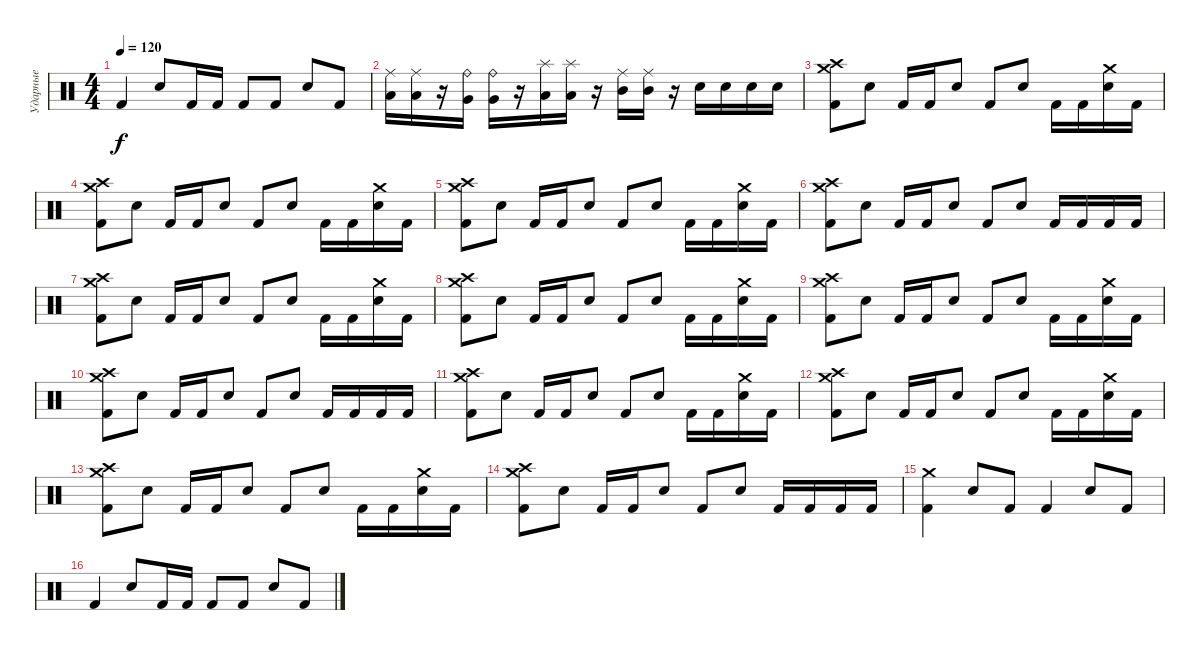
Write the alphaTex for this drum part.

\track ("Ударные" "Ударные") {instrument percussion}
\staff {score}
\articulation defaults
\ts (4 4)
\tempo 120
\clef neutral
\ks c "Kick (hit) 2".4{dy f} "Snare (hit) 2".8 "Kick (hit) 2".16 "Kick (hit) 2".16 "Kick (hit) 2".8 "Kick (hit) 2".8 "Snare (hit) 2".8 "Kick (hit) 2".8
|
("Low Floor Tom (hit)" "Ride (middle)").16 ("Low Floor Tom (hit)" "Ride (middle)").16 r.16 ("Very Low Tom (hit)" "Ride (bell)").16 ("Very Low Tom (hit)" "Ride (bell)").16 r.16 ("Low Tom (hit)" "Splash (hit)").16 ("Low Tom (hit)" "Splash (hit)").16 r.16 ("Mid Tom (hit)" "Ride (middle)").16 ("Mid Tom (hit)" "Ride (middle)").16 r.16 "Snare (hit) 2".16 "Snare (hit) 2".16 "Snare (hit) 2".16 "Snare (hit) 2".16 |
("Kick (hit) 2" "Crash medium (hit)" "Crash high (hit)").8 "Snare (hit) 2".8 "Kick (hit) 2".16 "Kick (hit) 2".16 "Snare (hit) 2".8 "Kick (hit) 2".8 "Snare (hit) 2".8 "Kick (hit) 2".16 "Kick (hit) 2".16 ("Snare (hit) 2" "Crash medium (hit)").16 "Kick (hit) 2".16 |
("Kick (hit) 2" "Crash medium (hit)" "Crash high (hit)").8 "Snare (hit) 2".8 "Kick (hit) 2".16 "Kick (hit) 2".16 "Snare (hit) 2".8 "Kick (hit) 2".8 "Snare (hit) 2".8 "Kick (hit) 2".16 "Kick (hit) 2".16 ("Snare (hit) 2" "Crash medium (hit)").16 "Kick (hit) 2".16 |
("Kick (hit) 2" "Crash medium (hit)" "Crash high (hit)").8 "Snare (hit) 2".8 "Kick (hit) 2".16 "Kick (hit) 2".16 "Snare (hit) 2".8 "Kick (hit) 2".8 "Snare (hit) 2".8 "Kick (hit) 2".16 "Kick (hit) 2".16 ("Snare (hit) 2" "Crash medium (hit)").16 "Kick (hit) 2".16 |
("Kick (hit) 2" "Crash medium (hit)" "Crash high (hit)").8 "Snare (hit) 2".8 "Kick (hit) 2".16 "Kick (hit) 2".16 "Snare (hit) 2".8 "Kick (hit) 2".8 "Snare (hit) 2".8 "Kick (hit) 2".16 "Kick (hit) 2".16 "Kick (hit) 2".16 "Kick (hit) 2".16 |
("Kick (hit) 2" "Crash medium (hit)" "Crash high (hit)").8 "Snare (hit) 2".8 "Kick (hit) 2".16 "Kick (hit) 2".16 "Snare (hit) 2".8 "Kick (hit) 2".8 "Snare (hit) 2".8 "Kick (hit) 2".16 "Kick (hit) 2".16 ("Snare (hit) 2" "Crash medium (hit)").16 "Kick (hit) 2".16 |
("Kick (hit) 2" "Crash medium (hit)" "Crash high (hit)").8 "Snare (hit) 2".8 "Kick (hit) 2".16 "Kick (hit) 2".16 "Snare (hit) 2".8 "Kick (hit) 2".8 "Snare (hit) 2".8 "Kick (hit) 2".16 "Kick (hit) 2".16 ("Snare (hit) 2" "Crash medium (hit)").16 "Kick (hit) 2".16 |
("Kick (hit) 2" "Crash medium (hit)" "Crash high (hit)").8 "Snare (hit) 2".8 "Kick (hit) 2".16 "Kick (hit) 2".16 "Snare (hit) 2".8 "Kick (hit) 2".8 "Snare (hit) 2".8 "Kick (hit) 2".16 "Kick (hit) 2".16 ("Snare (hit) 2" "Crash medium (hit)").16 "Kick (hit) 2".16 |
("Kick (hit) 2" "Crash medium (hit)" "Crash high (hit)").8 "Snare (hit) 2".8 "Kick (hit) 2".16 "Kick (hit) 2".16 "Snare (hit) 2".8 "Kick (hit) 2".8 "Snare (hit) 2".8 "Kick (hit) 2".16 "Kick (hit) 2".16 "Kick (hit) 2".16 "Kick (hit) 2".16 |
("Kick (hit) 2" "Crash medium (hit)" "Crash high (hit)").8 "Snare (hit) 2".8 "Kick (hit) 2".16 "Kick (hit) 2".16 "Snare (hit) 2".8 "Kick (hit) 2".8 "Snare (hit) 2".8 "Kick (hit) 2".16 "Kick (hit) 2".16 ("Snare (hit) 2" "Crash medium (hit)").16 "Kick (hit) 2".16 |
("Kick (hit) 2" "Crash medium (hit)" "Crash high (hit)").8 "Snare (hit) 2".8 "Kick (hit) 2".16 "Kick (hit) 2".16 "Snare (hit) 2".8 "Kick (hit) 2".8 "Snare (hit) 2".8 "Kick (hit) 2".16 "Kick (hit) 2".16 ("Snare (hit) 2" "Crash medium (hit)").16 "Kick (hit) 2".16 |
("Kick (hit) 2" "Crash medium (hit)" "Crash high (hit)").8 "Snare (hit) 2".8 "Kick (hit) 2".16 "Kick (hit) 2".16 "Snare (hit) 2".8 "Kick (hit) 2".8 "Snare (hit) 2".8 "Kick (hit) 2".16 "Kick (hit) 2".16 ("Snare (hit) 2" "Crash medium (hit)").16 "Kick (hit) 2".16 |
("Kick (hit) 2" "Crash medium (hit)" "Crash high (hit)").8 "Snare (hit) 2".8 "Kick (hit) 2".16 "Kick (hit) 2".16 "Snare (hit) 2".8 "Kick (hit) 2".8 "Snare (hit) 2".8 "Kick (hit) 2".16 "Kick (hit) 2".16 "Kick (hit) 2".16 "Kick (hit) 2".16 |
("Kick (hit) 2" "Crash medium (hit)").4 "Snare (hit) 2".8 "Kick (hit) 2".8 "Kick (hit) 2".4 "Snare (hit) 2".8 "Kick (hit) 2".8 |
"Kick (hit) 2".4 "Snare (hit) 2".8 "Kick (hit) 2".16 "Kick (hit) 2".16 "Kick (hit) 2".8 "Kick (hit) 2".8 "Snare (hit) 2".8 "Kick (hit) 2".8
